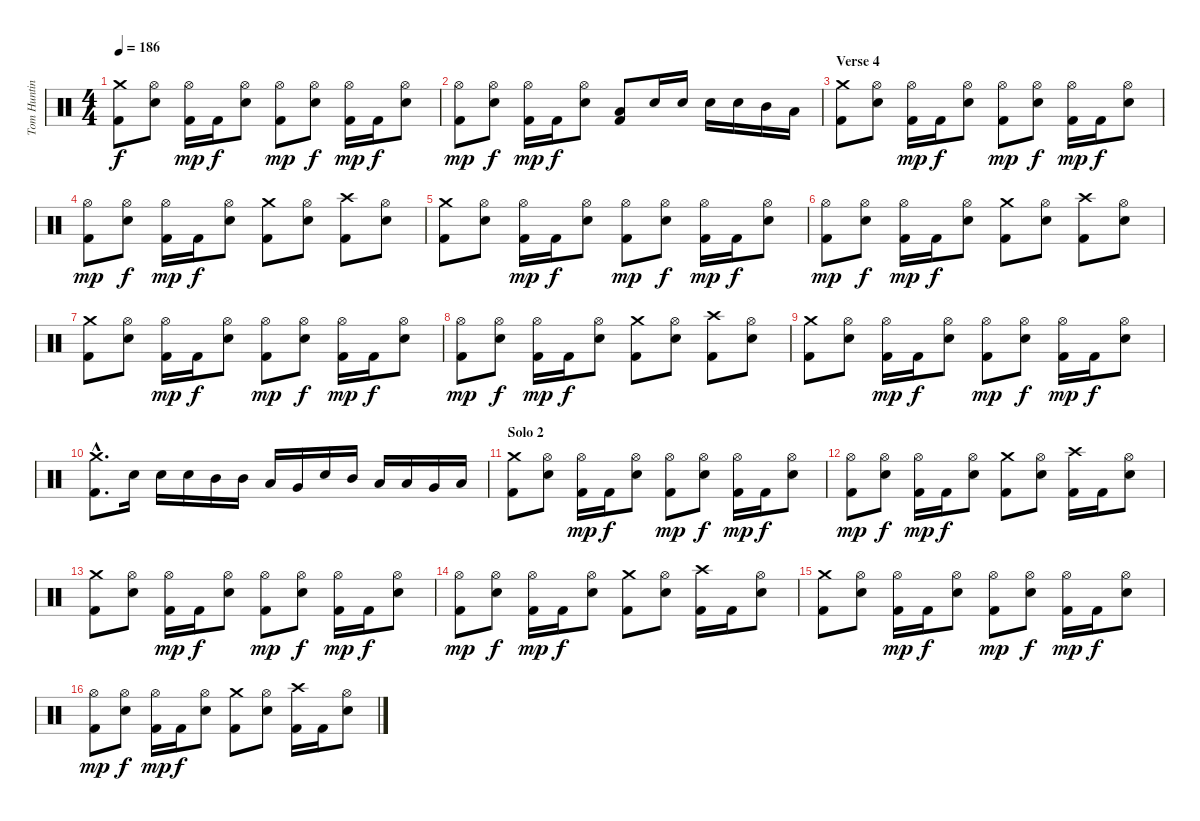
\track ("Tom Hunting" "Tom Huntin") {instrument percussion}
\staff {score}
\articulation defaults
\ts (4 4)
\tempo 186
\clef neutral
\ks c
("Kick (hit) 2" "Crash medium (hit)").8{dy f} ("Hi-Hat (open)" "Snare (hit) 2").8 ("Kick (hit) 2" "Hi-Hat (open)").16{dy mp} "Kick (hit) 2".16{dy f} ("Hi-Hat (open)" "Snare (hit) 2").8 ("Kick (hit) 2" "Hi-Hat (open)").8{dy mp} ("Hi-Hat (open)" "Snare (hit) 2").8{dy f} ("Kick (hit) 2" "Hi-Hat (open)").16{dy mp} "Kick (hit) 2".16{dy f} ("Hi-Hat (open)" "Snare (hit) 2").8 |
("Kick (hit) 2" "Hi-Hat (open)").8{dy mp} ("Hi-Hat (open)" "Snare (hit) 2").8{dy f} ("Kick (hit) 2" "Hi-Hat (open)").16{dy mp} "Kick (hit) 2".16{dy f} ("Hi-Hat (open)" "Snare (hit) 2").8 ("Kick (hit) 2" "Low Tom (hit)").8 "Snare (hit) 2".16 "Snare (hit) 2".16 "Snare (hit) 2".16 "Snare (hit) 2".16 "Mid Tom (hit)".16 "Low Tom (hit)".16 |
\section ("" "Verse 4")
("Kick (hit) 2" "Crash medium (hit)").8 ("Hi-Hat (open)" "Snare (hit) 2").8 ("Kick (hit) 2" "Hi-Hat (open)").16{dy mp} "Kick (hit) 2".16{dy f} ("Hi-Hat (open)" "Snare (hit) 2").8 ("Kick (hit) 2" "Hi-Hat (open)").8{dy mp} ("Hi-Hat (open)" "Snare (hit) 2").8{dy f} ("Kick (hit) 2" "Hi-Hat (open)").16{dy mp} "Kick (hit) 2".16{dy f} ("Hi-Hat (open)" "Snare (hit) 2").8 |
("Kick (hit) 2" "Hi-Hat (open)").8{dy mp} ("Hi-Hat (open)" "Snare (hit) 2").8{dy f} ("Kick (hit) 2" "Hi-Hat (open)").16{dy mp} "Kick (hit) 2".16{dy f} ("Hi-Hat (open)" "Snare (hit) 2").8 ("Kick (hit) 2" "Crash medium (hit)").8 ("Hi-Hat (open)" "Snare (hit) 2").8 ("Kick (hit) 2" "Crash high (hit)").8 ("Hi-Hat (open)" "Snare (hit) 2").8 |
("Kick (hit) 2" "Crash medium (hit)").8 ("Hi-Hat (open)" "Snare (hit) 2").8 ("Kick (hit) 2" "Hi-Hat (open)").16{dy mp} "Kick (hit) 2".16{dy f} ("Hi-Hat (open)" "Snare (hit) 2").8 ("Kick (hit) 2" "Hi-Hat (open)").8{dy mp} ("Hi-Hat (open)" "Snare (hit) 2").8{dy f} ("Kick (hit) 2" "Hi-Hat (open)").16{dy mp} "Kick (hit) 2".16{dy f} ("Hi-Hat (open)" "Snare (hit) 2").8 |
("Kick (hit) 2" "Hi-Hat (open)").8{dy mp} ("Hi-Hat (open)" "Snare (hit) 2").8{dy f} ("Kick (hit) 2" "Hi-Hat (open)").16{dy mp} "Kick (hit) 2".16{dy f} ("Hi-Hat (open)" "Snare (hit) 2").8 ("Kick (hit) 2" "Crash medium (hit)").8 ("Hi-Hat (open)" "Snare (hit) 2").8 ("Kick (hit) 2" "Crash high (hit)").8 ("Hi-Hat (open)" "Snare (hit) 2").8 |
("Kick (hit) 2" "Crash medium (hit)").8 ("Hi-Hat (open)" "Snare (hit) 2").8 ("Kick (hit) 2" "Hi-Hat (open)").16{dy mp} "Kick (hit) 2".16{dy f} ("Hi-Hat (open)" "Snare (hit) 2").8 ("Kick (hit) 2" "Hi-Hat (open)").8{dy mp} ("Hi-Hat (open)" "Snare (hit) 2").8{dy f} ("Kick (hit) 2" "Hi-Hat (open)").16{dy mp} "Kick (hit) 2".16{dy f} ("Hi-Hat (open)" "Snare (hit) 2").8 |
("Kick (hit) 2" "Hi-Hat (open)").8{dy mp} ("Hi-Hat (open)" "Snare (hit) 2").8{dy f} ("Kick (hit) 2" "Hi-Hat (open)").16{dy mp} "Kick (hit) 2".16{dy f} ("Hi-Hat (open)" "Snare (hit) 2").8 ("Kick (hit) 2" "Crash medium (hit)").8 ("Hi-Hat (open)" "Snare (hit) 2").8 ("Kick (hit) 2" "Crash high (hit)").8 ("Hi-Hat (open)" "Snare (hit) 2").8 |
("Kick (hit) 2" "Crash medium (hit)").8 ("Hi-Hat (open)" "Snare (hit) 2").8 ("Kick (hit) 2" "Hi-Hat (open)").16{dy mp} "Kick (hit) 2".16{dy f} ("Hi-Hat (open)" "Snare (hit) 2").8 ("Kick (hit) 2" "Hi-Hat (open)").8{dy mp} ("Hi-Hat (open)" "Snare (hit) 2").8{dy f} ("Kick (hit) 2" "Hi-Hat (open)").16{dy mp} "Kick (hit) 2".16{dy f} ("Hi-Hat (open)" "Snare (hit) 2").8 |
("Kick (hit) 2"{hac} "Crash medium (hit)"{hac}).8{d} "Snare (hit) 2".16 "Snare (hit) 2".16 "Snare (hit) 2".16 "Mid Tom (hit)".16 "Mid Tom (hit)".16 "Low Tom (hit)".16 "Very Low Tom (hit)".16 "Snare (hit) 2".16 "Mid Tom (hit)".16 "Low Tom (hit)".16 "Low Tom (hit)".16 "Very Low Tom (hit)".16 "Low Floor Tom (hit)".16 |
\section ("" "Solo 2")
("Kick (hit) 2" "Crash medium (hit)").8 ("Hi-Hat (open)" "Snare (hit) 2").8 ("Kick (hit) 2" "Hi-Hat (open)").16{dy mp} "Kick (hit) 2".16{dy f} ("Hi-Hat (open)" "Snare (hit) 2").8 ("Kick (hit) 2" "Hi-Hat (open)").8{dy mp} ("Hi-Hat (open)" "Snare (hit) 2").8{dy f} ("Kick (hit) 2" "Hi-Hat (open)").16{dy mp} "Kick (hit) 2".16{dy f} ("Hi-Hat (open)" "Snare (hit) 2").8 |
("Kick (hit) 2" "Hi-Hat (open)").8{dy mp} ("Hi-Hat (open)" "Snare (hit) 2").8{dy f} ("Kick (hit) 2" "Hi-Hat (open)").16{dy mp} "Kick (hit) 2".16{dy f} ("Hi-Hat (open)" "Snare (hit) 2").8 ("Kick (hit) 2" "Crash medium (hit)").8 ("Hi-Hat (open)" "Snare (hit) 2").8 ("Kick (hit) 2" "Crash high (hit)").16 "Kick (hit) 2".16 ("Hi-Hat (open)" "Snare (hit) 2").8 |
("Kick (hit) 2" "Crash medium (hit)").8 ("Hi-Hat (open)" "Snare (hit) 2").8 ("Kick (hit) 2" "Hi-Hat (open)").16{dy mp} "Kick (hit) 2".16{dy f} ("Hi-Hat (open)" "Snare (hit) 2").8 ("Kick (hit) 2" "Hi-Hat (open)").8{dy mp} ("Hi-Hat (open)" "Snare (hit) 2").8{dy f} ("Kick (hit) 2" "Hi-Hat (open)").16{dy mp} "Kick (hit) 2".16{dy f} ("Hi-Hat (open)" "Snare (hit) 2").8 |
("Kick (hit) 2" "Hi-Hat (open)").8{dy mp} ("Hi-Hat (open)" "Snare (hit) 2").8{dy f} ("Kick (hit) 2" "Hi-Hat (open)").16{dy mp} "Kick (hit) 2".16{dy f} ("Hi-Hat (open)" "Snare (hit) 2").8 ("Kick (hit) 2" "Crash medium (hit)").8 ("Hi-Hat (open)" "Snare (hit) 2").8 ("Kick (hit) 2" "Crash high (hit)").16 "Kick (hit) 2".16 ("Hi-Hat (open)" "Snare (hit) 2").8 |
("Kick (hit) 2" "Crash medium (hit)").8 ("Hi-Hat (open)" "Snare (hit) 2").8 ("Kick (hit) 2" "Hi-Hat (open)").16{dy mp} "Kick (hit) 2".16{dy f} ("Hi-Hat (open)" "Snare (hit) 2").8 ("Kick (hit) 2" "Hi-Hat (open)").8{dy mp} ("Hi-Hat (open)" "Snare (hit) 2").8{dy f} ("Kick (hit) 2" "Hi-Hat (open)").16{dy mp} "Kick (hit) 2".16{dy f} ("Hi-Hat (open)" "Snare (hit) 2").8 |
("Kick (hit) 2" "Hi-Hat (open)").8{dy mp} ("Hi-Hat (open)" "Snare (hit) 2").8{dy f} ("Kick (hit) 2" "Hi-Hat (open)").16{dy mp} "Kick (hit) 2".16{dy f} ("Hi-Hat (open)" "Snare (hit) 2").8 ("Kick (hit) 2" "Crash medium (hit)").8 ("Hi-Hat (open)" "Snare (hit) 2").8 ("Kick (hit) 2" "Crash high (hit)").16 "Kick (hit) 2".16 ("Hi-Hat (open)" "Snare (hit) 2").8
